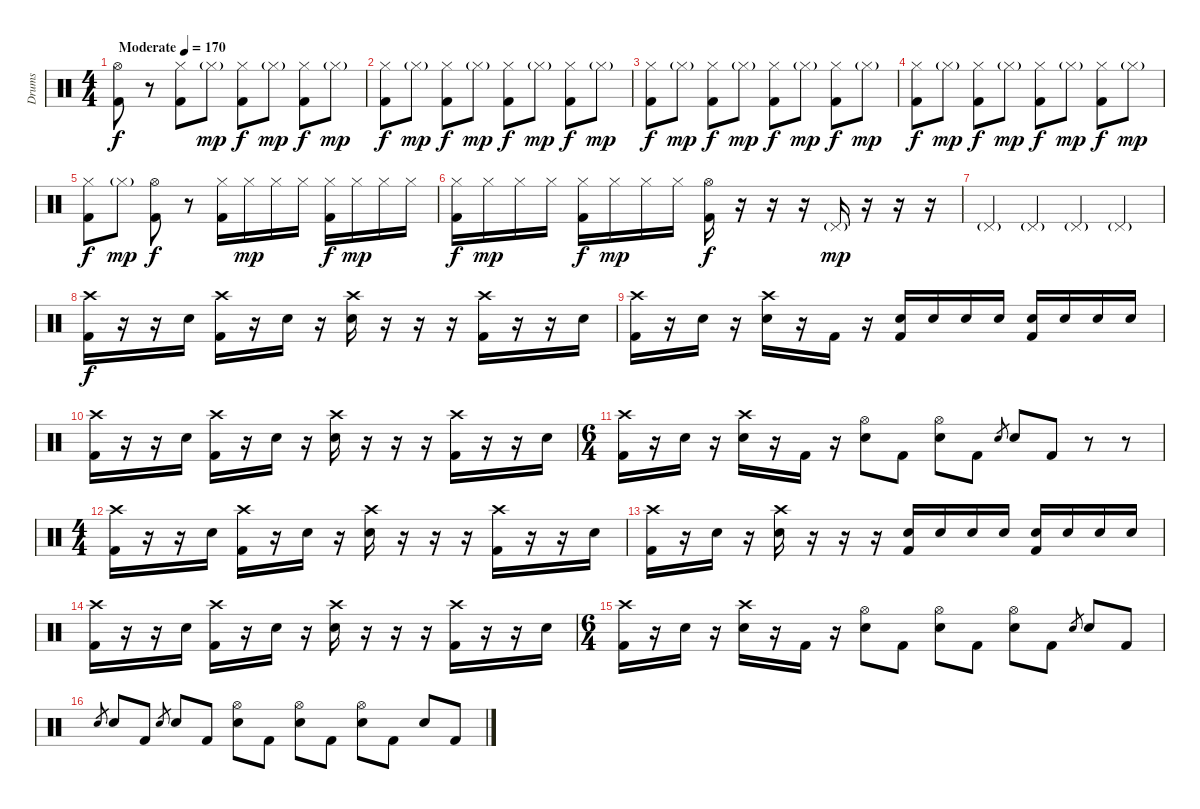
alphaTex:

\track ("Drums" "Drums") {instrument percussion}
\staff {score}
\articulation defaults
\ts (4 4)
\tempo (170 "Moderate")
\clef neutral
\ks c
("Kick (hit) 2" "Hi-Hat (open)").8{dy f} r.8 ("Kick (hit) 2" "Hi-Hat (closed)").8 "Hi-Hat (closed)"{g}.8{dy mp} ("Kick (hit) 2" "Hi-Hat (closed)").8{dy f} "Hi-Hat (closed)"{g}.8{dy mp} ("Kick (hit) 2" "Hi-Hat (closed)").8{dy f} "Hi-Hat (closed)"{g}.8{dy mp} |
("Kick (hit) 2" "Hi-Hat (closed)").8{dy f} "Hi-Hat (closed)"{g}.8{dy mp} ("Kick (hit) 2" "Hi-Hat (closed)").8{dy f} "Hi-Hat (closed)"{g}.8{dy mp} ("Kick (hit) 2" "Hi-Hat (closed)").8{dy f} "Hi-Hat (closed)"{g}.8{dy mp} ("Kick (hit) 2" "Hi-Hat (closed)").8{dy f} "Hi-Hat (closed)"{g}.8{dy mp} |
("Kick (hit) 2" "Hi-Hat (closed)").8{dy f} "Hi-Hat (closed)"{g}.8{dy mp} ("Kick (hit) 2" "Hi-Hat (closed)").8{dy f} "Hi-Hat (closed)"{g}.8{dy mp} ("Kick (hit) 2" "Hi-Hat (closed)").8{dy f} "Hi-Hat (closed)"{g}.8{dy mp} ("Kick (hit) 2" "Hi-Hat (closed)").8{dy f} "Hi-Hat (closed)"{g}.8{dy mp} |
("Kick (hit) 2" "Hi-Hat (closed)").8{dy f} "Hi-Hat (closed)"{g}.8{dy mp} ("Kick (hit) 2" "Hi-Hat (closed)").8{dy f} "Hi-Hat (closed)"{g}.8{dy mp} ("Kick (hit) 2" "Hi-Hat (closed)").8{dy f} "Hi-Hat (closed)"{g}.8{dy mp} ("Kick (hit) 2" "Hi-Hat (closed)").8{dy f} "Hi-Hat (closed)"{g}.8{dy mp} |
("Kick (hit) 2" "Hi-Hat (closed)").8{dy f} "Hi-Hat (closed)"{g}.8{dy mp} ("Kick (hit) 2" "Hi-Hat (open)").8{dy f} r.8 ("Kick (hit) 2" "Hi-Hat (closed)").16 "Hi-Hat (closed)".16{dy mp} "Hi-Hat (closed)".16 "Hi-Hat (closed)".16 ("Kick (hit) 2" "Hi-Hat (closed)").16{dy f} "Hi-Hat (closed)".16{dy mp} "Hi-Hat (closed)".16 "Hi-Hat (closed)".16 |
("Kick (hit) 2" "Hi-Hat (closed)").16{dy f} "Hi-Hat (closed)".16{dy mp} "Hi-Hat (closed)".16 "Hi-Hat (closed)".16 ("Kick (hit) 2" "Hi-Hat (closed)").16{dy f} "Hi-Hat (closed)".16{dy mp} "Hi-Hat (closed)".16 "Hi-Hat (closed)".16 ("Kick (hit) 2" "Hi-Hat (open)").16{dy f} r.16 r.16 r.16 "Pedal Hi-Hat (hit)"{g}.16{dy mp} r.16 r.16 r.16 |
"Pedal Hi-Hat (hit)"{g}.4 "Pedal Hi-Hat (hit)"{g}.4 "Pedal Hi-Hat (hit)"{g}.4 "Pedal Hi-Hat (hit)"{g}.4 |
("Crash high (hit)" "Kick (hit) 2").16{dy f} r.16 r.16 "Electric Snare (hit)".16 ("Crash high (hit)" "Kick (hit) 2").16 r.16 "Electric Snare (hit)".16 r.16 ("Crash high (hit)" "Electric Snare (hit)").16 r.16 r.16 r.16 ("Crash high (hit)" "Kick (hit) 2").16 r.16 r.16 "Electric Snare (hit)".16 |
("Crash high (hit)" "Kick (hit) 2").16 r.16 "Electric Snare (hit)".16 r.16 ("Crash high (hit)" "Electric Snare (hit)").16 r.16 "Kick (hit) 2".16 r.16 ("Kick (hit) 2" "Electric Snare (hit)").16 "Electric Snare (hit)".16 "Electric Snare (hit)".16 "Electric Snare (hit)".16 ("Kick (hit) 2" "Electric Snare (hit)").16 "Electric Snare (hit)".16 "Electric Snare (hit)".16 "Electric Snare (hit)".16 |
("Crash high (hit)" "Kick (hit) 2").16 r.16 r.16 "Electric Snare (hit)".16 ("Crash high (hit)" "Kick (hit) 2").16 r.16 "Electric Snare (hit)".16 r.16 ("Crash high (hit)" "Electric Snare (hit)").16 r.16 r.16 r.16 ("Crash high (hit)" "Kick (hit) 2").16 r.16 r.16 "Electric Snare (hit)".16 |
\ts (6 4)
("Crash high (hit)" "Kick (hit) 2").16 r.16 "Electric Snare (hit)".16 r.16 ("Crash high (hit)" "Electric Snare (hit)").16 r.16 "Kick (hit) 2".16 r.16 ("Electric Snare (hit)" "Hi-Hat (open)").8 "Kick (hit) 2".8 ("Electric Snare (hit)" "Hi-Hat (open)").8 "Kick (hit) 2".8 "Electric Snare (hit)".8{gr} "Electric Snare (hit)".8 "Kick (hit) 2".8 r.8 r.8 |
\ts (4 4)
("Crash high (hit)" "Kick (hit) 2").16 r.16 r.16 "Electric Snare (hit)".16 ("Crash high (hit)" "Kick (hit) 2").16 r.16 "Electric Snare (hit)".16 r.16 ("Crash high (hit)" "Electric Snare (hit)").16 r.16 r.16 r.16 ("Crash high (hit)" "Kick (hit) 2").16 r.16 r.16 "Electric Snare (hit)".16 |
("Crash high (hit)" "Kick (hit) 2").16 r.16 "Electric Snare (hit)".16 r.16 ("Crash high (hit)" "Electric Snare (hit)").16 r.16 r.16 r.16 ("Kick (hit) 2" "Electric Snare (hit)").16 "Electric Snare (hit)".16 "Electric Snare (hit)".16 "Electric Snare (hit)".16 ("Kick (hit) 2" "Electric Snare (hit)").16 "Electric Snare (hit)".16 "Electric Snare (hit)".16 "Electric Snare (hit)".16 |
("Crash high (hit)" "Kick (hit) 2").16 r.16 r.16 "Electric Snare (hit)".16 ("Crash high (hit)" "Kick (hit) 2").16 r.16 "Electric Snare (hit)".16 r.16 ("Crash high (hit)" "Electric Snare (hit)").16 r.16 r.16 r.16 ("Crash high (hit)" "Kick (hit) 2").16 r.16 r.16 "Electric Snare (hit)".16 |
\ts (6 4)
("Crash high (hit)" "Kick (hit) 2").16 r.16 "Electric Snare (hit)".16 r.16 ("Crash high (hit)" "Electric Snare (hit)").16 r.16 "Kick (hit) 2".16 r.16 ("Electric Snare (hit)" "Hi-Hat (open)").8 "Kick (hit) 2".8 ("Electric Snare (hit)" "Hi-Hat (open)").8 "Kick (hit) 2".8 ("Electric Snare (hit)" "Hi-Hat (open)").8 "Kick (hit) 2".8 "Electric Snare (hit)".8{gr} "Electric Snare (hit)".8 "Kick (hit) 2".8 |
"Electric Snare (hit)".8{gr} "Electric Snare (hit)".8 "Kick (hit) 2".8 "Electric Snare (hit)".8{gr} "Electric Snare (hit)".8 "Kick (hit) 2".8 ("Electric Snare (hit)" "Hi-Hat (open)").8 "Kick (hit) 2".8 ("Electric Snare (hit)" "Hi-Hat (open)").8 "Kick (hit) 2".8 ("Electric Snare (hit)" "Hi-Hat (open)").8 "Kick (hit) 2".8 "Electric Snare (hit)".8 "Kick (hit) 2".8
